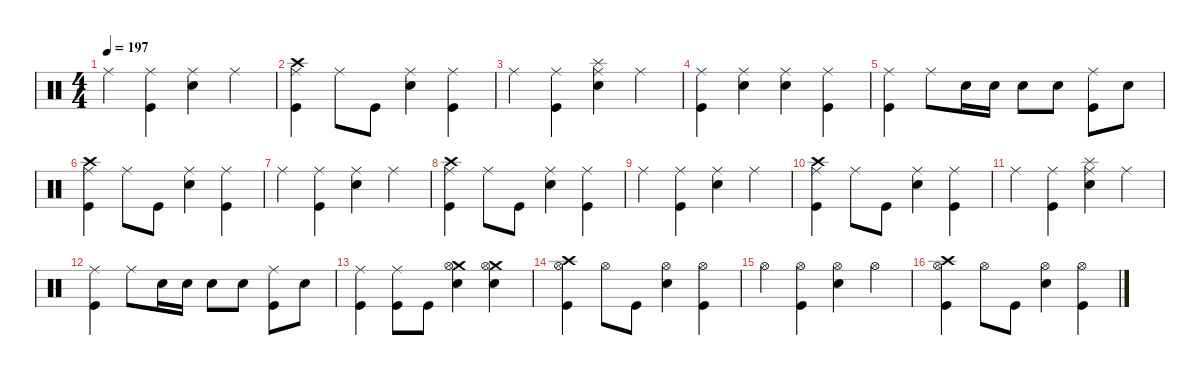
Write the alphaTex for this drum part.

\defaultSystemsLayout 4
\hideDynamics
\bracketExtendMode nobrackets
\singleTrackTrackNamePolicy hidden
\multiTrackTrackNamePolicy hidden
\firstSystemTrackNameMode fullname
\firstSystemTrackNameOrientation horizontal
\otherSystemsTrackNameOrientation horizontal
\track ("Drums" "drm.") {defaultSystemsLayout 4 instrument percussion}
\staff {score}
\articulation defaults
\ts (4 4)
\tempo 197
\clef neutral
\ks c "Ride (middle)".4{dy f beam Down}
("Ride (middle)" "Kick (hit)").4{beam Down} ("Ride (middle)" "Snare (hit) 2").4{beam Down} "Ride (middle)".4{beam Down} |
("Crash high (hit)" "Ride (middle)" "Kick (hit)").4{beam Down} "Ride (middle)".8{beam Down} "Kick (hit)".8{beam Down} ("Ride (middle)" "Snare (hit) 2").4{beam Down} ("Ride (middle)" "Kick (hit)").4{beam Down} |
"Ride (middle)".4{beam Down} ("Ride (middle)" "Kick (hit)").4{beam Down} ("Splash (hit)" "Ride (middle)" "Snare (hit) 2").4{beam Down} "Ride (middle)".4{beam Down} |
("Ride (middle)" "Kick (hit)").4{beam Down} ("Ride (middle)" "Snare (hit) 2").4{beam Down} ("Ride (middle)" "Snare (hit) 2").4{beam Down} ("Ride (middle)" "Kick (hit)").4{beam Down} |
("Ride (middle)" "Kick (hit)").4{beam Down} "Ride (middle)".8{beam Down} "Snare (hit) 2".16{dy mf beam Down} "Snare (hit) 2".16{beam Down} "Snare (hit) 2".8{dy f beam Down} "Snare (hit) 2".8{beam Down} ("Ride (middle)" "Kick (hit)").8{beam Down} "Snare (hit) 2".8{beam Down} |
("Crash high (hit)" "Ride (middle)" "Kick (hit)").4{beam Down} "Ride (middle)".8{beam Down} "Kick (hit)".8{beam Down} ("Ride (middle)" "Snare (hit) 2").4{beam Down} ("Ride (middle)" "Kick (hit)").4{beam Down} |
"Ride (middle)".4{beam Down} ("Ride (middle)" "Kick (hit)").4{beam Down} ("Ride (middle)" "Snare (hit) 2").4{beam Down} "Ride (middle)".4{beam Down} |
("Crash high (hit)" "Ride (middle)" "Kick (hit)").4{beam Down} "Ride (middle)".8{beam Down} "Kick (hit)".8{beam Down} ("Ride (middle)" "Snare (hit) 2").4{beam Down} ("Ride (middle)" "Kick (hit)").4{beam Down} |
"Ride (middle)".4{beam Down} ("Ride (middle)" "Kick (hit)").4{beam Down} ("Ride (middle)" "Snare (hit) 2").4{beam Down} "Ride (middle)".4{beam Down} |
("Crash high (hit)" "Ride (middle)" "Kick (hit)").4{beam Down} "Ride (middle)".8{beam Down} "Kick (hit)".8{beam Down} ("Ride (middle)" "Snare (hit) 2").4{beam Down} ("Ride (middle)" "Kick (hit)").4{beam Down} |
"Ride (middle)".4{beam Down} ("Ride (middle)" "Kick (hit)").4{beam Down} ("Splash (hit)" "Ride (middle)" "Snare (hit) 2").4{beam Down} "Ride (middle)".4{beam Down} |
("Ride (middle)" "Kick (hit)").4{beam Down} "Ride (middle)".8{beam Down} "Snare (hit) 2".16{dy mf beam Down} "Snare (hit) 2".16{beam Down} "Snare (hit) 2".8{dy f beam Down} "Snare (hit) 2".8{beam Down} ("Ride (middle)" "Kick (hit)").8{beam Down} "Snare (hit) 2".8{beam Down} |
("Ride (middle)" "Kick (hit)").4{beam Down} ("Ride (middle)" "Kick (hit)").8{beam Down} "Kick (hit)".8{beam Down} ("Crash medium (hit)" "Hi-Hat (open)" "Snare (hit) 2").4{beam Down} ("Crash medium (hit)" "Hi-Hat (open)" "Snare (hit) 2").4{beam Down} |
("Crash high (hit)" "Hi-Hat (open)" "Kick (hit)").4{beam Down} "Hi-Hat (open)".8{beam Down} "Kick (hit)".8{beam Down} ("Hi-Hat (open)" "Snare (hit) 2").4{beam Down} ("Hi-Hat (open)" "Kick (hit)").4{beam Down} |
"Hi-Hat (open)".4{beam Down} ("Hi-Hat (open)" "Kick (hit)").4{beam Down} ("Hi-Hat (open)" "Snare (hit) 2").4{beam Down} "Hi-Hat (open)".4{beam Down} |
("Crash high (hit)" "Hi-Hat (open)" "Kick (hit)").4{beam Down} "Hi-Hat (open)".8{beam Down} "Kick (hit)".8{beam Down} ("Hi-Hat (open)" "Snare (hit) 2").4{beam Down} ("Hi-Hat (open)" "Kick (hit)").4{beam Down}
